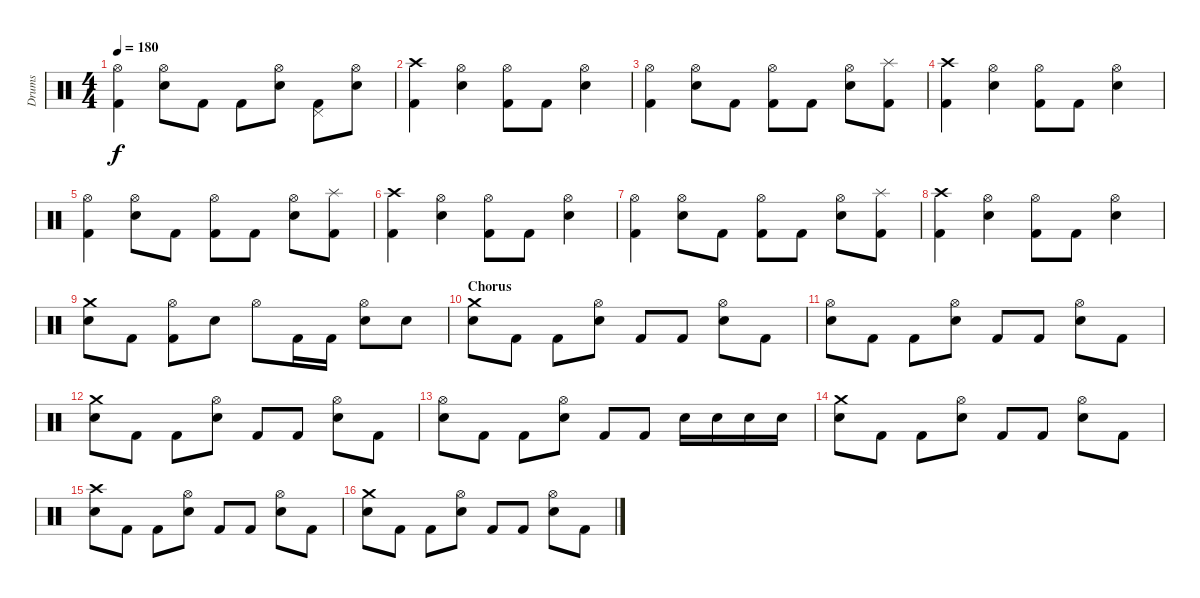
\track ("Drums" "Drums") {instrument percussion}
\staff {score}
\articulation defaults
\ts (4 4)
\tempo 180
\clef neutral
\ks c
("Hi-Hat (open)" "Kick (hit) 2").4{dy f} ("Hi-Hat (open)" "Electric Snare (hit)").8 "Kick (hit) 2".8 "Kick (hit) 2".8 ("Hi-Hat (open)" "Electric Snare (hit)").8 ("Pedal Hi-Hat (hit)" "Kick (hit) 2").8 ("Hi-Hat (open)" "Electric Snare (hit)").8 |
("Crash high (hit)" "Kick (hit) 2").4 ("Hi-Hat (open)" "Electric Snare (hit)").4 ("Hi-Hat (open)" "Kick (hit) 2").8 "Kick (hit) 2".8 ("Hi-Hat (open)" "Electric Snare (hit)").4 |
("Hi-Hat (open)" "Kick (hit) 2").4 ("Hi-Hat (open)" "Electric Snare (hit)").8 "Kick (hit) 2".8 ("Hi-Hat (open)" "Kick (hit) 2").8 "Kick (hit) 2".8 ("Hi-Hat (open)" "Electric Snare (hit)").8 ("Splash (hit)" "Kick (hit) 2").8 |
("Crash high (hit)" "Kick (hit) 2").4 ("Hi-Hat (open)" "Electric Snare (hit)").4 ("Hi-Hat (open)" "Kick (hit) 2").8 "Kick (hit) 2".8 ("Hi-Hat (open)" "Electric Snare (hit)").4 |
("Hi-Hat (open)" "Kick (hit) 2").4 ("Hi-Hat (open)" "Electric Snare (hit)").8 "Kick (hit) 2".8 ("Hi-Hat (open)" "Kick (hit) 2").8 "Kick (hit) 2".8 ("Hi-Hat (open)" "Electric Snare (hit)").8 ("Splash (hit)" "Kick (hit) 2").8 |
("Crash high (hit)" "Kick (hit) 2").4 ("Hi-Hat (open)" "Electric Snare (hit)").4 ("Hi-Hat (open)" "Kick (hit) 2").8 "Kick (hit) 2".8 ("Hi-Hat (open)" "Electric Snare (hit)").4 |
("Hi-Hat (open)" "Kick (hit) 2").4 ("Hi-Hat (open)" "Electric Snare (hit)").8 "Kick (hit) 2".8 ("Hi-Hat (open)" "Kick (hit) 2").8 "Kick (hit) 2".8 ("Hi-Hat (open)" "Electric Snare (hit)").8 ("Splash (hit)" "Kick (hit) 2").8 |
("Crash high (hit)" "Kick (hit) 2").4 ("Hi-Hat (open)" "Electric Snare (hit)").4 ("Hi-Hat (open)" "Kick (hit) 2").8 "Kick (hit) 2".8 ("Hi-Hat (open)" "Electric Snare (hit)").4 |
("Crash medium (hit)" "Electric Snare (hit)").8 "Kick (hit) 2".8 ("Hi-Hat (open)" "Kick (hit) 2").8 "Electric Snare (hit)".8 "Hi-Hat (open)".8 "Kick (hit) 2".16 "Kick (hit) 2".16 ("Hi-Hat (open)" "Electric Snare (hit)").8 "Electric Snare (hit)".8 |
\section ("" "Chorus")
("Crash medium (hit)" "Electric Snare (hit)").8 "Kick (hit) 2".8 "Kick (hit) 2".8 ("Hi-Hat (open)" "Electric Snare (hit)").8 "Kick (hit) 2".8 "Kick (hit) 2".8 ("Hi-Hat (open)" "Electric Snare (hit)").8 "Kick (hit) 2".8 |
("Hi-Hat (open)" "Electric Snare (hit)").8 "Kick (hit) 2".8 "Kick (hit) 2".8 ("Hi-Hat (open)" "Electric Snare (hit)").8 "Kick (hit) 2".8 "Kick (hit) 2".8 ("Hi-Hat (open)" "Electric Snare (hit)").8 "Kick (hit) 2".8 |
("Crash medium (hit)" "Electric Snare (hit)").8 "Kick (hit) 2".8 "Kick (hit) 2".8 ("Hi-Hat (open)" "Electric Snare (hit)").8 "Kick (hit) 2".8 "Kick (hit) 2".8 ("Hi-Hat (open)" "Electric Snare (hit)").8 "Kick (hit) 2".8 |
("Hi-Hat (open)" "Electric Snare (hit)").8 "Kick (hit) 2".8 "Kick (hit) 2".8 ("Hi-Hat (open)" "Electric Snare (hit)").8 "Kick (hit) 2".8 "Kick (hit) 2".8 "Electric Snare (hit)".16 "Electric Snare (hit)".16 "Electric Snare (hit)".16 "Electric Snare (hit)".16 |
("Crash medium (hit)" "Electric Snare (hit)").8 "Kick (hit) 2".8 "Kick (hit) 2".8 ("Hi-Hat (open)" "Electric Snare (hit)").8 "Kick (hit) 2".8 "Kick (hit) 2".8 ("Hi-Hat (open)" "Electric Snare (hit)").8 "Kick (hit) 2".8 |
("Crash high (hit)" "Electric Snare (hit)").8 "Kick (hit) 2".8 "Kick (hit) 2".8 ("Hi-Hat (open)" "Electric Snare (hit)").8 "Kick (hit) 2".8 "Kick (hit) 2".8 ("Hi-Hat (open)" "Electric Snare (hit)").8 "Kick (hit) 2".8 |
("Crash medium (hit)" "Electric Snare (hit)").8 "Kick (hit) 2".8 "Kick (hit) 2".8 ("Hi-Hat (open)" "Electric Snare (hit)").8 "Kick (hit) 2".8 "Kick (hit) 2".8 ("Hi-Hat (open)" "Electric Snare (hit)").8 "Kick (hit) 2".8
